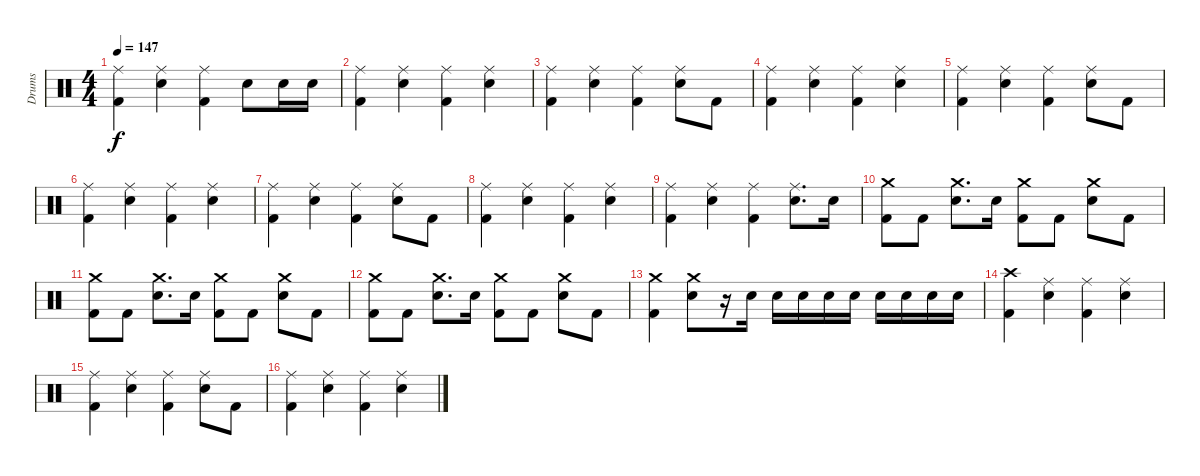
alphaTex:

\track ("Drums" "Drums") {instrument percussion}
\staff {score}
\articulation defaults
\ts (4 4)
\tempo 147
\clef neutral
\ks c
("Ride (middle)" "Kick (hit) 2").4{dy f} ("Ride (middle)" "Snare (hit) 2").4 ("Ride (middle)" "Kick (hit) 2").4 "Snare (hit) 2".8 "Snare (hit) 2".16 "Snare (hit) 2".16 |
("Ride (middle)" "Kick (hit) 2").4 ("Ride (middle)" "Snare (hit) 2").4 ("Ride (middle)" "Kick (hit) 2").4 ("Ride (middle)" "Snare (hit) 2").4 |
("Ride (middle)" "Kick (hit) 2").4 ("Ride (middle)" "Snare (hit) 2").4 ("Ride (middle)" "Kick (hit) 2").4 ("Ride (middle)" "Snare (hit) 2").8 "Kick (hit) 2".8 |
("Ride (middle)" "Kick (hit) 2").4 ("Ride (middle)" "Snare (hit) 2").4 ("Ride (middle)" "Kick (hit) 2").4 ("Ride (middle)" "Snare (hit) 2").4 |
("Ride (middle)" "Kick (hit) 2").4 ("Ride (middle)" "Snare (hit) 2").4 ("Ride (middle)" "Kick (hit) 2").4 ("Ride (middle)" "Snare (hit) 2").8 "Kick (hit) 2".8 |
("Ride (middle)" "Kick (hit) 2").4 ("Ride (middle)" "Snare (hit) 2").4 ("Ride (middle)" "Kick (hit) 2").4 ("Ride (middle)" "Snare (hit) 2").4 |
("Ride (middle)" "Kick (hit) 2").4 ("Ride (middle)" "Snare (hit) 2").4 ("Ride (middle)" "Kick (hit) 2").4 ("Ride (middle)" "Snare (hit) 2").8 "Kick (hit) 2".8 |
("Ride (middle)" "Kick (hit) 2").4 ("Ride (middle)" "Snare (hit) 2").4 ("Ride (middle)" "Kick (hit) 2").4 ("Ride (middle)" "Snare (hit) 2").4 |
("Ride (middle)" "Kick (hit) 2").4 ("Ride (middle)" "Snare (hit) 2").4 ("Ride (middle)" "Kick (hit) 2").4 ("Ride (middle)" "Snare (hit) 2").8{d} "Snare (hit) 2".16 |
("Crash medium (hit)" "Kick (hit) 2").8 "Kick (hit) 2".8 ("Crash medium (hit)" "Snare (hit) 2").8{d} "Snare (hit) 2".16 ("Crash medium (hit)" "Kick (hit) 2").8 "Kick (hit) 2".8 ("Crash medium (hit)" "Snare (hit) 2").8 "Kick (hit) 2".8 |
("Crash medium (hit)" "Kick (hit) 2").8 "Kick (hit) 2".8 ("Crash medium (hit)" "Snare (hit) 2").8{d} "Snare (hit) 2".16 ("Crash medium (hit)" "Kick (hit) 2").8 "Kick (hit) 2".8 ("Crash medium (hit)" "Snare (hit) 2").8 "Kick (hit) 2".8 |
("Crash medium (hit)" "Kick (hit) 2").8 "Kick (hit) 2".8 ("Crash medium (hit)" "Snare (hit) 2").8{d} "Snare (hit) 2".16 ("Crash medium (hit)" "Kick (hit) 2").8 "Kick (hit) 2".8 ("Crash medium (hit)" "Snare (hit) 2").8 "Kick (hit) 2".8 |
("Crash medium (hit)" "Kick (hit) 2").4 ("Crash medium (hit)" "Snare (hit) 2").8 r.16 "Snare (hit) 2".16 "Snare (hit) 2".16 "Snare (hit) 2".16 "Snare (hit) 2".16 "Snare (hit) 2".16 "Snare (hit) 2".16 "Snare (hit) 2".16 "Snare (hit) 2".16 "Snare (hit) 2".16 |
("Crash high (hit)" "Kick (hit) 2").4 ("Ride (middle)" "Snare (hit) 2").4 ("Ride (middle)" "Kick (hit) 2").4 ("Ride (middle)" "Snare (hit) 2").4 |
("Ride (middle)" "Kick (hit) 2").4 ("Ride (middle)" "Snare (hit) 2").4 ("Ride (middle)" "Kick (hit) 2").4 ("Ride (middle)" "Snare (hit) 2").8 "Kick (hit) 2".8 |
("Ride (middle)" "Kick (hit) 2").4 ("Ride (middle)" "Snare (hit) 2").4 ("Ride (middle)" "Kick (hit) 2").4 ("Ride (middle)" "Snare (hit) 2").4
